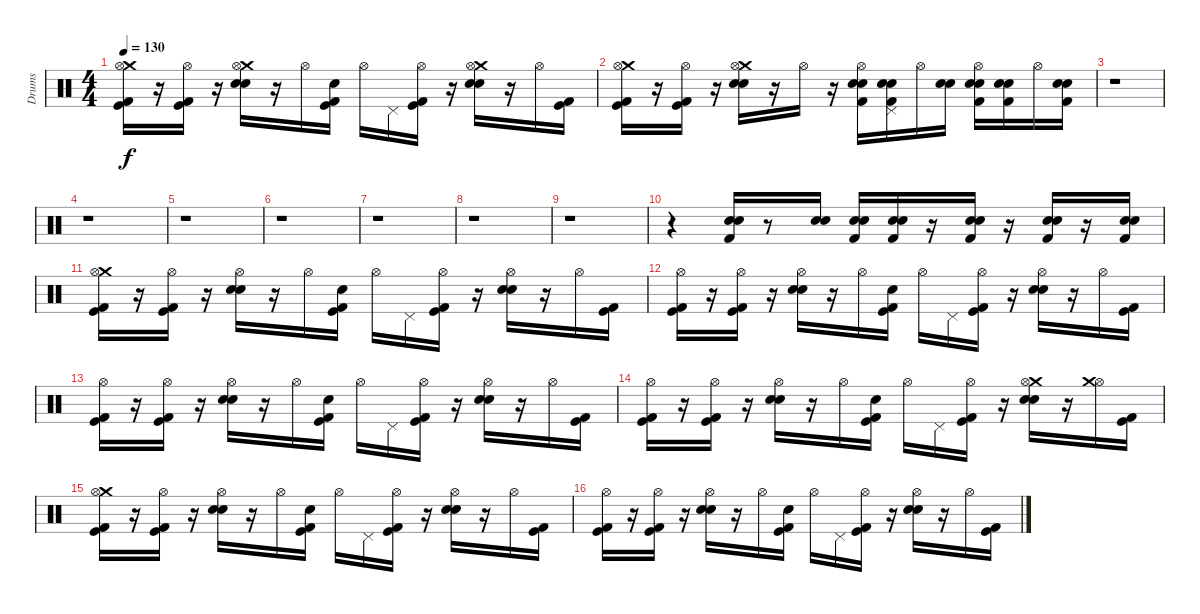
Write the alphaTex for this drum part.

\track ("Drums" "Drums") {instrument percussion}
\staff {score}
\articulation defaults
\ts (4 4)
\tempo 130
\clef neutral
\ks c
("Kick (hit) 2" "Kick (hit)" "Crash medium (hit)" "Hi-Hat (open)").16{dy f} r.16 ("Kick (hit) 2" "Kick (hit)" "Hi-Hat (open)").16 r.16 ("Snare (hit) 2" "Electric Snare (hit)" "Crash medium (hit)" "Hi-Hat (open)").16 r.16 "Hi-Hat (open)".16 ("Kick (hit) 2" "Kick (hit)" "Electric Snare (hit)").16 "Hi-Hat (open)".16 "Pedal Hi-Hat (hit)".16 ("Kick (hit) 2" "Kick (hit)" "Hi-Hat (open)").16 r.16 ("Snare (hit) 2" "Electric Snare (hit)" "Crash medium (hit)" "Hi-Hat (open)").16 r.16 "Hi-Hat (open)".16 ("Kick (hit) 2" "Kick (hit)").16 |
("Kick (hit) 2" "Kick (hit)" "Crash medium (hit)" "Hi-Hat (open)").16 r.16 ("Kick (hit) 2" "Kick (hit)" "Hi-Hat (open)").16 r.16 ("Snare (hit) 2" "Electric Snare (hit)" "Crash medium (hit)" "Hi-Hat (open)").16 r.16 "Hi-Hat (open)".16 r.16 ("Hi-Hat (open)" "Electric Snare (hit)" "Snare (hit) 2" "Kick (hit) 2").16 ("Electric Snare (hit)" "Snare (hit) 2" "Kick (hit) 2" "Pedal Hi-Hat (hit)").16 "Hi-Hat (open)".16 ("Electric Snare (hit)" "Electric Snare (hit)").16 ("Hi-Hat (open)" "Snare (hit) 2" "Electric Snare (hit)" "Kick (hit) 2").16 ("Electric Snare (hit)" "Snare (hit) 2" "Kick (hit) 2").16 "Hi-Hat (open)".16 ("Electric Snare (hit)" "Snare (hit) 2" "Kick (hit) 2").16 |
r.1 |
r.1 |
r.1 |
r.1 |
r.1 |
r.1 |
r.1 |
r.4 ("Electric Snare (hit)" "Snare (hit) 2" "Kick (hit) 2").16 r.8 ("Electric Snare (hit)" "Electric Snare (hit)").16 ("Snare (hit) 2" "Electric Snare (hit)" "Kick (hit) 2").16 ("Electric Snare (hit)" "Snare (hit) 2" "Kick (hit) 2").16 r.16 ("Electric Snare (hit)" "Snare (hit) 2" "Kick (hit) 2").16 r.16 ("Electric Snare (hit)" "Snare (hit) 2" "Kick (hit) 2").16 r.16 ("Electric Snare (hit)" "Snare (hit) 2" "Kick (hit) 2").16 |
("Kick (hit) 2" "Kick (hit)" "Crash medium (hit)" "Hi-Hat (open)").16 r.16 ("Kick (hit) 2" "Kick (hit)" "Hi-Hat (open)").16 r.16 ("Snare (hit) 2" "Electric Snare (hit)" "Hi-Hat (open)").16 r.16 "Hi-Hat (open)".16 ("Kick (hit) 2" "Kick (hit)" "Electric Snare (hit)").16 "Hi-Hat (open)".16 "Pedal Hi-Hat (hit)".16 ("Kick (hit) 2" "Kick (hit)" "Hi-Hat (open)").16 r.16 ("Snare (hit) 2" "Electric Snare (hit)" "Hi-Hat (open)").16 r.16 "Hi-Hat (open)".16 ("Kick (hit) 2" "Kick (hit)").16 |
("Kick (hit) 2" "Kick (hit)" "Hi-Hat (open)").16 r.16 ("Kick (hit) 2" "Kick (hit)" "Hi-Hat (open)").16 r.16 ("Snare (hit) 2" "Electric Snare (hit)" "Hi-Hat (open)").16 r.16 "Hi-Hat (open)".16 ("Kick (hit) 2" "Kick (hit)" "Electric Snare (hit)").16 "Hi-Hat (open)".16 "Pedal Hi-Hat (hit)".16 ("Kick (hit) 2" "Kick (hit)" "Hi-Hat (open)").16 r.16 ("Snare (hit) 2" "Electric Snare (hit)" "Hi-Hat (open)").16 r.16 "Hi-Hat (open)".16 ("Kick (hit) 2" "Kick (hit)").16 |
("Kick (hit) 2" "Kick (hit)" "Hi-Hat (open)").16 r.16 ("Kick (hit) 2" "Kick (hit)" "Hi-Hat (open)").16 r.16 ("Snare (hit) 2" "Electric Snare (hit)" "Hi-Hat (open)").16 r.16 "Hi-Hat (open)".16 ("Kick (hit) 2" "Kick (hit)" "Electric Snare (hit)").16 "Hi-Hat (open)".16 "Pedal Hi-Hat (hit)".16 ("Kick (hit) 2" "Kick (hit)" "Hi-Hat (open)").16 r.16 ("Snare (hit) 2" "Electric Snare (hit)" "Hi-Hat (open)").16 r.16 "Hi-Hat (open)".16 ("Kick (hit) 2" "Kick (hit)").16 |
("Kick (hit) 2" "Kick (hit)" "Hi-Hat (open)").16 r.16 ("Kick (hit) 2" "Kick (hit)" "Hi-Hat (open)").16 r.16 ("Snare (hit) 2" "Electric Snare (hit)" "Hi-Hat (open)").16 r.16 "Hi-Hat (open)".16 ("Kick (hit) 2" "Kick (hit)" "Electric Snare (hit)").16 "Hi-Hat (open)".16 "Pedal Hi-Hat (hit)".16 ("Kick (hit) 2" "Kick (hit)" "Hi-Hat (open)").16 r.16 ("Snare (hit) 2" "Electric Snare (hit)" "Crash medium (hit)" "Hi-Hat (open)").16 r.16 ("Hi-Hat (open)" "Crash medium (hit)").16 ("Kick (hit) 2" "Kick (hit)").16 |
("Kick (hit) 2" "Kick (hit)" "Crash medium (hit)" "Hi-Hat (open)").16 r.16 ("Kick (hit) 2" "Kick (hit)" "Hi-Hat (open)").16 r.16 ("Snare (hit) 2" "Electric Snare (hit)" "Hi-Hat (open)").16 r.16 "Hi-Hat (open)".16 ("Kick (hit) 2" "Kick (hit)" "Electric Snare (hit)").16 "Hi-Hat (open)".16 "Pedal Hi-Hat (hit)".16 ("Kick (hit) 2" "Kick (hit)" "Hi-Hat (open)").16 r.16 ("Snare (hit) 2" "Electric Snare (hit)" "Hi-Hat (open)").16 r.16 "Hi-Hat (open)".16 ("Kick (hit) 2" "Kick (hit)").16 |
("Kick (hit) 2" "Kick (hit)" "Hi-Hat (open)").16 r.16 ("Kick (hit) 2" "Kick (hit)" "Hi-Hat (open)").16 r.16 ("Snare (hit) 2" "Electric Snare (hit)" "Hi-Hat (open)").16 r.16 "Hi-Hat (open)".16 ("Kick (hit) 2" "Kick (hit)" "Electric Snare (hit)").16 "Hi-Hat (open)".16 "Pedal Hi-Hat (hit)".16 ("Kick (hit) 2" "Kick (hit)" "Hi-Hat (open)").16 r.16 ("Snare (hit) 2" "Electric Snare (hit)" "Hi-Hat (open)").16 r.16 "Hi-Hat (open)".16 ("Kick (hit) 2" "Kick (hit)").16
